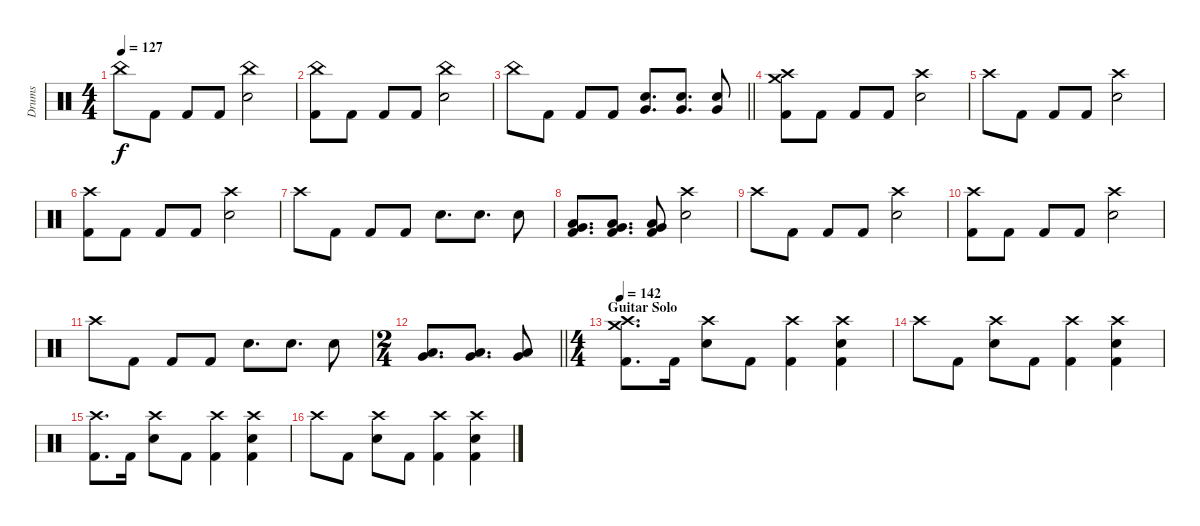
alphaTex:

\track ("Drums" "Drums") {instrument percussion}
\staff {score}
\articulation defaults
\ts (4 4)
\tempo 127
\clef neutral
\ks c "China (hit)".8{dy f} "Kick (hit) 2".8 "Kick (hit) 2".8 "Kick (hit) 2".8
("China (hit)" "Electric Snare (hit)").2 |
("China (hit)" "Kick (hit) 2").8 "Kick (hit) 2".8 "Kick (hit) 2".8 "Kick (hit) 2".8 ("China (hit)" "Electric Snare (hit)").2 |
\barLineRight lightlight "China (hit)".8 "Kick (hit) 2".8 "Kick (hit) 2".8 "Kick (hit) 2".8
("Very Low Tom (hit)" "Electric Snare (hit)").8{d} ("Very Low Tom (hit)" "Electric Snare (hit)").8{d} ("Very Low Tom (hit)" "Electric Snare (hit)").8 |
\section ("" "")
("Crash high (hit)" "Crash medium (hit)" "Kick (hit) 2").8 "Kick (hit) 2".8 "Kick (hit) 2".8 "Kick (hit) 2".8 ("Crash high (hit)" "Electric Snare (hit)").2 |
"Crash high (hit)".8 "Kick (hit) 2".8 "Kick (hit) 2".8 "Kick (hit) 2".8 ("Crash high (hit)" "Electric Snare (hit)").2 |
("Crash high (hit)" "Kick (hit) 2").8 "Kick (hit) 2".8 "Kick (hit) 2".8 "Kick (hit) 2".8 ("Crash high (hit)" "Electric Snare (hit)").2 |
"Crash high (hit)".8 "Kick (hit) 2".8 "Kick (hit) 2".8 "Kick (hit) 2".8 "Electric Snare (hit)".8{d} "Electric Snare (hit)".8{d} "Electric Snare (hit)".8 |
("Very Low Tom (hit)" "Low Floor Tom (hit)" "Kick (hit) 2").8{d} ("Very Low Tom (hit)" "Low Floor Tom (hit)" "Kick (hit) 2").8{d} ("Very Low Tom (hit)" "Low Floor Tom (hit)" "Kick (hit) 2").8 ("Crash high (hit)" "Electric Snare (hit)").2 |
"Crash high (hit)".8 "Kick (hit) 2".8 "Kick (hit) 2".8 "Kick (hit) 2".8 ("Crash high (hit)" "Electric Snare (hit)").2 |
("Crash high (hit)" "Kick (hit) 2").8 "Kick (hit) 2".8 "Kick (hit) 2".8 "Kick (hit) 2".8 ("Crash high (hit)" "Electric Snare (hit)").2 |
"Crash high (hit)".8 "Kick (hit) 2".8 "Kick (hit) 2".8 "Kick (hit) 2".8 "Electric Snare (hit)".8{d} "Electric Snare (hit)".8{d} "Electric Snare (hit)".8 |
\ts (2 4)
\barLineRight lightlight
("Very Low Tom (hit)" "Low Floor Tom (hit)").8{d bu 60} ("Very Low Tom (hit)" "Low Floor Tom (hit)").8{d bu 60} ("Very Low Tom (hit)" "Low Floor Tom (hit)").8{bu 60} |
\ts (4 4)
\section ("" "Guitar Solo")
\tempo 142
("Crash high (hit)" "Crash medium (hit)" "Kick (hit) 2").8{d} "Kick (hit) 2".16 ("Crash high (hit)" "Electric Snare (hit)").8 "Kick (hit) 2".8 ("Crash high (hit)" "Kick (hit) 2").4 ("Crash high (hit)" "Electric Snare (hit)" "Kick (hit) 2").4 |
"Crash high (hit)".8 "Kick (hit) 2".8 ("Crash high (hit)" "Electric Snare (hit)").8 "Kick (hit) 2".8 ("Crash high (hit)" "Kick (hit) 2").4 ("Crash high (hit)" "Electric Snare (hit)" "Kick (hit) 2").4 |
("Crash high (hit)" "Kick (hit) 2").8{d} "Kick (hit) 2".16 ("Crash high (hit)" "Electric Snare (hit)").8 "Kick (hit) 2".8 ("Crash high (hit)" "Kick (hit) 2").4 ("Crash high (hit)" "Electric Snare (hit)" "Kick (hit) 2").4 |
"Crash high (hit)".8 "Kick (hit) 2".8 ("Crash high (hit)" "Electric Snare (hit)").8 "Kick (hit) 2".8 ("Crash high (hit)" "Kick (hit) 2").4 ("Crash high (hit)" "Electric Snare (hit)" "Kick (hit) 2").4
